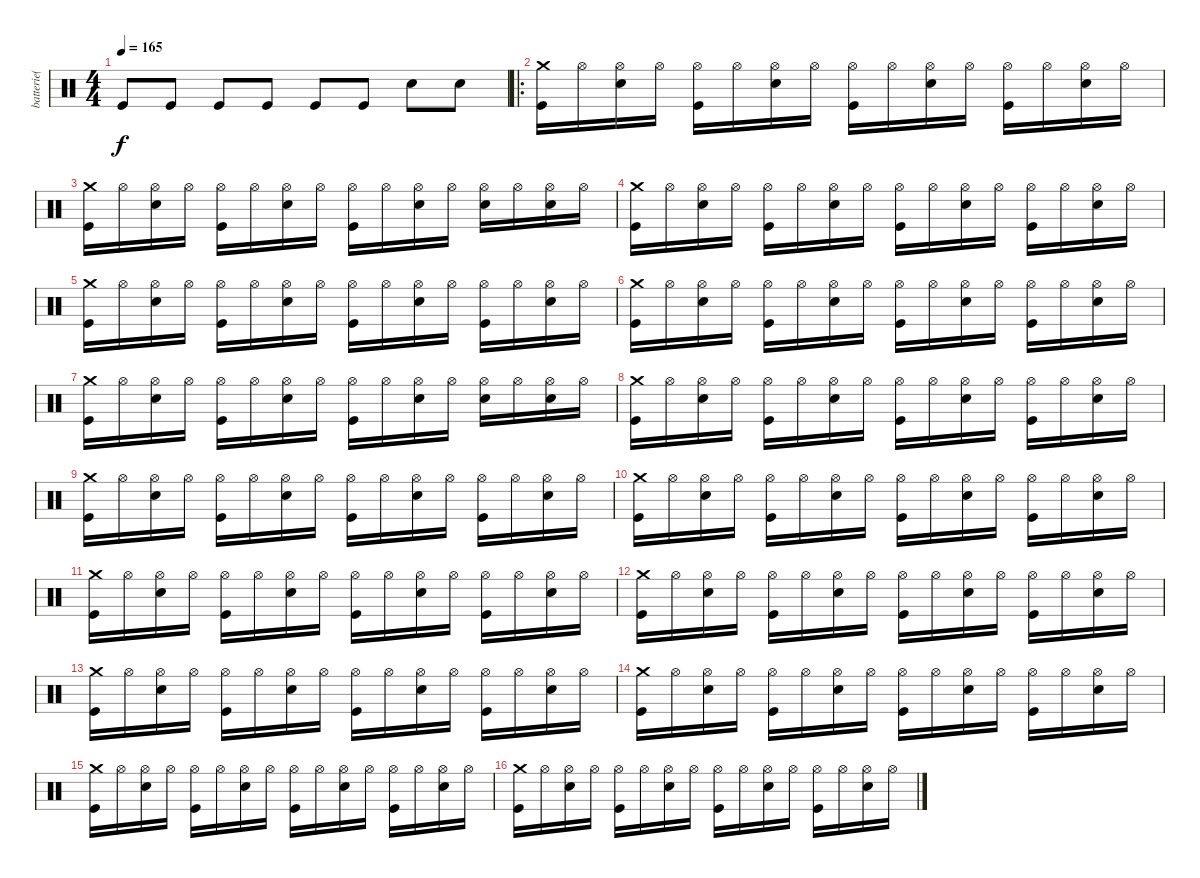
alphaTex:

\track ("batterie( Shawn )" "batterie( ") {instrument percussion}
\staff {score}
\articulation defaults
\ts (4 4)
\tempo 165
\clef neutral
\ks c "Kick (hit)".8{dy f} "Kick (hit)".8 "Kick (hit)".8 "Kick (hit)".8 "Kick (hit)".8 "Kick (hit)".8 "Snare (hit) 2".8 "Snare (hit) 2".8
|
\ro
("Crash medium (hit)" "Kick (hit)").16 "Hi-Hat (open)".16 ("Hi-Hat (open)" "Snare (hit) 2").16 "Hi-Hat (open)".16 ("Hi-Hat (open)" "Kick (hit)").16 "Hi-Hat (open)".16 ("Hi-Hat (open)" "Snare (hit) 2").16 "Hi-Hat (open)".16 ("Hi-Hat (open)" "Kick (hit)").16 "Hi-Hat (open)".16 ("Hi-Hat (open)" "Snare (hit) 2").16 "Hi-Hat (open)".16 ("Hi-Hat (open)" "Kick (hit)").16 "Hi-Hat (open)".16 ("Hi-Hat (open)" "Snare (hit) 2").16 "Hi-Hat (open)".16 |
("Crash medium (hit)" "Kick (hit)").16 "Hi-Hat (open)".16 ("Hi-Hat (open)" "Snare (hit) 2").16 "Hi-Hat (open)".16 ("Hi-Hat (open)" "Kick (hit)").16 "Hi-Hat (open)".16 ("Hi-Hat (open)" "Snare (hit) 2").16 "Hi-Hat (open)".16 ("Hi-Hat (open)" "Kick (hit)").16 "Hi-Hat (open)".16 ("Hi-Hat (open)" "Snare (hit) 2").16 "Hi-Hat (open)".16 ("Hi-Hat (open)" "Snare (hit) 2").16 "Hi-Hat (open)".16 ("Hi-Hat (open)" "Snare (hit) 2").16 "Hi-Hat (open)".16 |
("Crash medium (hit)" "Kick (hit)").16 "Hi-Hat (open)".16 ("Hi-Hat (open)" "Snare (hit) 2").16 "Hi-Hat (open)".16 ("Hi-Hat (open)" "Kick (hit)").16 "Hi-Hat (open)".16 ("Hi-Hat (open)" "Snare (hit) 2").16 "Hi-Hat (open)".16 ("Hi-Hat (open)" "Kick (hit)").16 "Hi-Hat (open)".16 ("Hi-Hat (open)" "Snare (hit) 2").16 "Hi-Hat (open)".16 ("Hi-Hat (open)" "Kick (hit)").16 "Hi-Hat (open)".16 ("Hi-Hat (open)" "Snare (hit) 2").16 "Hi-Hat (open)".16 |
("Crash medium (hit)" "Kick (hit)").16 "Hi-Hat (open)".16 ("Hi-Hat (open)" "Snare (hit) 2").16 "Hi-Hat (open)".16 ("Hi-Hat (open)" "Kick (hit)").16 "Hi-Hat (open)".16 ("Hi-Hat (open)" "Snare (hit) 2").16 "Hi-Hat (open)".16 ("Hi-Hat (open)" "Kick (hit)").16 "Hi-Hat (open)".16 ("Hi-Hat (open)" "Snare (hit) 2").16 "Hi-Hat (open)".16 ("Hi-Hat (open)" "Kick (hit)").16 "Hi-Hat (open)".16 ("Hi-Hat (open)" "Snare (hit) 2").16 "Hi-Hat (open)".16 |
("Crash medium (hit)" "Kick (hit)").16 "Hi-Hat (open)".16 ("Hi-Hat (open)" "Snare (hit) 2").16 "Hi-Hat (open)".16 ("Hi-Hat (open)" "Kick (hit)").16 "Hi-Hat (open)".16 ("Hi-Hat (open)" "Snare (hit) 2").16 "Hi-Hat (open)".16 ("Hi-Hat (open)" "Kick (hit)").16 "Hi-Hat (open)".16 ("Hi-Hat (open)" "Snare (hit) 2").16 "Hi-Hat (open)".16 ("Hi-Hat (open)" "Kick (hit)").16 "Hi-Hat (open)".16 ("Hi-Hat (open)" "Snare (hit) 2").16 "Hi-Hat (open)".16 |
("Crash medium (hit)" "Kick (hit)").16 "Hi-Hat (open)".16 ("Hi-Hat (open)" "Snare (hit) 2").16 "Hi-Hat (open)".16 ("Hi-Hat (open)" "Kick (hit)").16 "Hi-Hat (open)".16 ("Hi-Hat (open)" "Snare (hit) 2").16 "Hi-Hat (open)".16 ("Hi-Hat (open)" "Kick (hit)").16 "Hi-Hat (open)".16 ("Hi-Hat (open)" "Snare (hit) 2").16 "Hi-Hat (open)".16 ("Hi-Hat (open)" "Snare (hit) 2").16 "Hi-Hat (open)".16 ("Hi-Hat (open)" "Snare (hit) 2").16 "Hi-Hat (open)".16 |
("Crash medium (hit)" "Kick (hit)").16 "Hi-Hat (open)".16 ("Hi-Hat (open)" "Snare (hit) 2").16 "Hi-Hat (open)".16 ("Hi-Hat (open)" "Kick (hit)").16 "Hi-Hat (open)".16 ("Hi-Hat (open)" "Snare (hit) 2").16 "Hi-Hat (open)".16 ("Hi-Hat (open)" "Kick (hit)").16 "Hi-Hat (open)".16 ("Hi-Hat (open)" "Snare (hit) 2").16 "Hi-Hat (open)".16 ("Hi-Hat (open)" "Kick (hit)").16 "Hi-Hat (open)".16 ("Hi-Hat (open)" "Snare (hit) 2").16 "Hi-Hat (open)".16 |
("Crash medium (hit)" "Kick (hit)").16 "Hi-Hat (open)".16 ("Hi-Hat (open)" "Snare (hit) 2").16 "Hi-Hat (open)".16 ("Hi-Hat (open)" "Kick (hit)").16 "Hi-Hat (open)".16 ("Hi-Hat (open)" "Snare (hit) 2").16 "Hi-Hat (open)".16 ("Hi-Hat (open)" "Kick (hit)").16 "Hi-Hat (open)".16 ("Hi-Hat (open)" "Snare (hit) 2").16 "Hi-Hat (open)".16 ("Hi-Hat (open)" "Kick (hit)").16 "Hi-Hat (open)".16 ("Hi-Hat (open)" "Snare (hit) 2").16 "Hi-Hat (open)".16 |
("Crash medium (hit)" "Kick (hit)").16 "Hi-Hat (open)".16 ("Hi-Hat (open)" "Snare (hit) 2").16 "Hi-Hat (open)".16 ("Hi-Hat (open)" "Kick (hit)").16 "Hi-Hat (open)".16 ("Hi-Hat (open)" "Snare (hit) 2").16 "Hi-Hat (open)".16 ("Hi-Hat (open)" "Kick (hit)").16 "Hi-Hat (open)".16 ("Hi-Hat (open)" "Snare (hit) 2").16 "Hi-Hat (open)".16 ("Hi-Hat (open)" "Kick (hit)").16 "Hi-Hat (open)".16 ("Hi-Hat (open)" "Snare (hit) 2").16 "Hi-Hat (open)".16 |
("Crash medium (hit)" "Kick (hit)").16 "Hi-Hat (open)".16 ("Hi-Hat (open)" "Snare (hit) 2").16 "Hi-Hat (open)".16 ("Hi-Hat (open)" "Kick (hit)").16 "Hi-Hat (open)".16 ("Hi-Hat (open)" "Snare (hit) 2").16 "Hi-Hat (open)".16 ("Hi-Hat (open)" "Kick (hit)").16 "Hi-Hat (open)".16 ("Hi-Hat (open)" "Snare (hit) 2").16 "Hi-Hat (open)".16 ("Hi-Hat (open)" "Kick (hit)").16 "Hi-Hat (open)".16 ("Hi-Hat (open)" "Snare (hit) 2").16 "Hi-Hat (open)".16 |
("Crash medium (hit)" "Kick (hit)").16 "Hi-Hat (open)".16 ("Hi-Hat (open)" "Snare (hit) 2").16 "Hi-Hat (open)".16 ("Hi-Hat (open)" "Kick (hit)").16 "Hi-Hat (open)".16 ("Hi-Hat (open)" "Snare (hit) 2").16 "Hi-Hat (open)".16 ("Hi-Hat (open)" "Kick (hit)").16 "Hi-Hat (open)".16 ("Hi-Hat (open)" "Snare (hit) 2").16 "Hi-Hat (open)".16 ("Hi-Hat (open)" "Kick (hit)").16 "Hi-Hat (open)".16 ("Hi-Hat (open)" "Snare (hit) 2").16 "Hi-Hat (open)".16 |
("Crash medium (hit)" "Kick (hit)").16 "Hi-Hat (open)".16 ("Hi-Hat (open)" "Snare (hit) 2").16 "Hi-Hat (open)".16 ("Hi-Hat (open)" "Kick (hit)").16 "Hi-Hat (open)".16 ("Hi-Hat (open)" "Snare (hit) 2").16 "Hi-Hat (open)".16 ("Hi-Hat (open)" "Kick (hit)").16 "Hi-Hat (open)".16 ("Hi-Hat (open)" "Snare (hit) 2").16 "Hi-Hat (open)".16 ("Hi-Hat (open)" "Kick (hit)").16 "Hi-Hat (open)".16 ("Hi-Hat (open)" "Snare (hit) 2").16 "Hi-Hat (open)".16 |
("Crash medium (hit)" "Kick (hit)").16 "Hi-Hat (open)".16 ("Hi-Hat (open)" "Snare (hit) 2").16 "Hi-Hat (open)".16 ("Hi-Hat (open)" "Kick (hit)").16 "Hi-Hat (open)".16 ("Hi-Hat (open)" "Snare (hit) 2").16 "Hi-Hat (open)".16 ("Hi-Hat (open)" "Kick (hit)").16 "Hi-Hat (open)".16 ("Hi-Hat (open)" "Snare (hit) 2").16 "Hi-Hat (open)".16 ("Hi-Hat (open)" "Kick (hit)").16 "Hi-Hat (open)".16 ("Hi-Hat (open)" "Snare (hit) 2").16 "Hi-Hat (open)".16 |
("Crash medium (hit)" "Kick (hit)").16 "Hi-Hat (open)".16 ("Hi-Hat (open)" "Snare (hit) 2").16 "Hi-Hat (open)".16 ("Hi-Hat (open)" "Kick (hit)").16 "Hi-Hat (open)".16 ("Hi-Hat (open)" "Snare (hit) 2").16 "Hi-Hat (open)".16 ("Hi-Hat (open)" "Kick (hit)").16 "Hi-Hat (open)".16 ("Hi-Hat (open)" "Snare (hit) 2").16 "Hi-Hat (open)".16 ("Hi-Hat (open)" "Kick (hit)").16 "Hi-Hat (open)".16 ("Hi-Hat (open)" "Snare (hit) 2").16 "Hi-Hat (open)".16 |
("Crash medium (hit)" "Kick (hit)").16 "Hi-Hat (open)".16 ("Hi-Hat (open)" "Snare (hit) 2").16 "Hi-Hat (open)".16 ("Hi-Hat (open)" "Kick (hit)").16 "Hi-Hat (open)".16 ("Hi-Hat (open)" "Snare (hit) 2").16 "Hi-Hat (open)".16 ("Hi-Hat (open)" "Kick (hit)").16 "Hi-Hat (open)".16 ("Hi-Hat (open)" "Snare (hit) 2").16 "Hi-Hat (open)".16 ("Hi-Hat (open)" "Kick (hit)").16 "Hi-Hat (open)".16 ("Hi-Hat (open)" "Snare (hit) 2").16 "Hi-Hat (open)".16
